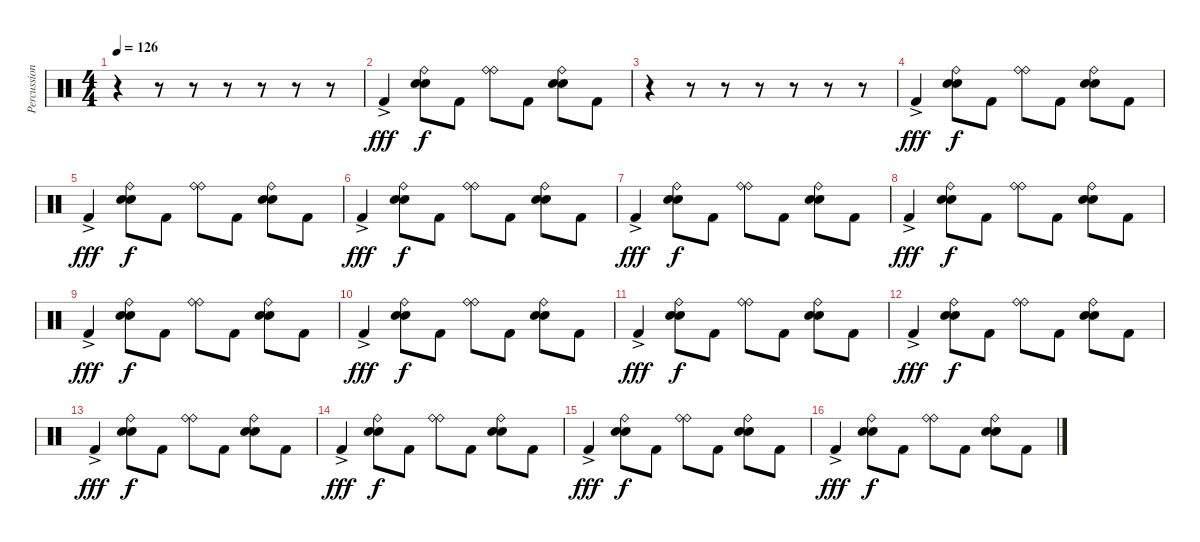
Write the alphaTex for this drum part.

\track ("Percussion" "Percussion") {instrument percussion}
\staff {score}
\articulation defaults
\ts (4 4)
\tempo 126
\clef neutral
\ks c
r.4{dy f} r.8 r.8 r.8 r.8 r.8 r.8 |
"Kick (hit) 2"{ac}.4{dy fff} ("Snare (hit) 2" "Ride (bell)" "Snare (hit) 2").8{dy f} "Kick (hit) 2".8 ("Ride (bell)" "Ride (bell)").8 "Kick (hit) 2".8 ("Snare (hit) 2" "Ride (bell)" "Snare (hit) 2").8 "Kick (hit) 2".8 |
r.4 r.8 r.8 r.8 r.8 r.8 r.8 |
"Kick (hit) 2"{ac}.4{dy fff} ("Snare (hit) 2" "Ride (bell)" "Snare (hit) 2").8{dy f} "Kick (hit) 2".8 ("Ride (bell)" "Ride (bell)").8 "Kick (hit) 2".8 ("Snare (hit) 2" "Ride (bell)" "Snare (hit) 2").8 "Kick (hit) 2".8 |
"Kick (hit) 2"{ac}.4{dy fff} ("Snare (hit) 2" "Ride (bell)" "Snare (hit) 2").8{dy f} "Kick (hit) 2".8 ("Ride (bell)" "Ride (bell)").8 "Kick (hit) 2".8 ("Snare (hit) 2" "Ride (bell)" "Snare (hit) 2").8 "Kick (hit) 2".8 |
"Kick (hit) 2"{ac}.4{dy fff} ("Snare (hit) 2" "Ride (bell)" "Snare (hit) 2").8{dy f} "Kick (hit) 2".8 ("Ride (bell)" "Ride (bell)").8 "Kick (hit) 2".8 ("Snare (hit) 2" "Ride (bell)" "Snare (hit) 2").8 "Kick (hit) 2".8 |
"Kick (hit) 2"{ac}.4{dy fff} ("Snare (hit) 2" "Ride (bell)" "Snare (hit) 2").8{dy f} "Kick (hit) 2".8 ("Ride (bell)" "Ride (bell)").8 "Kick (hit) 2".8 ("Snare (hit) 2" "Ride (bell)" "Snare (hit) 2").8 "Kick (hit) 2".8 |
"Kick (hit) 2"{ac}.4{dy fff} ("Snare (hit) 2" "Ride (bell)" "Snare (hit) 2").8{dy f} "Kick (hit) 2".8 ("Ride (bell)" "Ride (bell)").8 "Kick (hit) 2".8 ("Snare (hit) 2" "Ride (bell)" "Snare (hit) 2").8 "Kick (hit) 2".8 |
"Kick (hit) 2"{ac}.4{dy fff} ("Snare (hit) 2" "Ride (bell)" "Snare (hit) 2").8{dy f} "Kick (hit) 2".8 ("Ride (bell)" "Ride (bell)").8 "Kick (hit) 2".8 ("Snare (hit) 2" "Ride (bell)" "Snare (hit) 2").8 "Kick (hit) 2".8 |
"Kick (hit) 2"{ac}.4{dy fff} ("Snare (hit) 2" "Ride (bell)" "Snare (hit) 2").8{dy f} "Kick (hit) 2".8 ("Ride (bell)" "Ride (bell)").8 "Kick (hit) 2".8 ("Snare (hit) 2" "Ride (bell)" "Snare (hit) 2").8 "Kick (hit) 2".8 |
"Kick (hit) 2"{ac}.4{dy fff} ("Snare (hit) 2" "Ride (bell)" "Snare (hit) 2").8{dy f} "Kick (hit) 2".8 ("Ride (bell)" "Ride (bell)").8 "Kick (hit) 2".8 ("Snare (hit) 2" "Ride (bell)" "Snare (hit) 2").8 "Kick (hit) 2".8 |
"Kick (hit) 2"{ac}.4{dy fff} ("Snare (hit) 2" "Ride (bell)" "Snare (hit) 2").8{dy f} "Kick (hit) 2".8 ("Ride (bell)" "Ride (bell)").8 "Kick (hit) 2".8 ("Snare (hit) 2" "Ride (bell)" "Snare (hit) 2").8 "Kick (hit) 2".8 |
"Kick (hit) 2"{ac}.4{dy fff} ("Snare (hit) 2" "Ride (bell)" "Snare (hit) 2").8{dy f} "Kick (hit) 2".8 ("Ride (bell)" "Ride (bell)").8 "Kick (hit) 2".8 ("Snare (hit) 2" "Ride (bell)" "Snare (hit) 2").8 "Kick (hit) 2".8 |
"Kick (hit) 2"{ac}.4{dy fff} ("Snare (hit) 2" "Ride (bell)" "Snare (hit) 2").8{dy f} "Kick (hit) 2".8 ("Ride (bell)" "Ride (bell)").8 "Kick (hit) 2".8 ("Snare (hit) 2" "Ride (bell)" "Snare (hit) 2").8 "Kick (hit) 2".8 |
"Kick (hit) 2"{ac}.4{dy fff} ("Snare (hit) 2" "Ride (bell)" "Snare (hit) 2").8{dy f} "Kick (hit) 2".8 ("Ride (bell)" "Ride (bell)").8 "Kick (hit) 2".8 ("Snare (hit) 2" "Ride (bell)" "Snare (hit) 2").8 "Kick (hit) 2".8 |
"Kick (hit) 2"{ac}.4{dy fff} ("Snare (hit) 2" "Ride (bell)" "Snare (hit) 2").8{dy f} "Kick (hit) 2".8 ("Ride (bell)" "Ride (bell)").8 "Kick (hit) 2".8 ("Snare (hit) 2" "Ride (bell)" "Snare (hit) 2").8 "Kick (hit) 2".8
